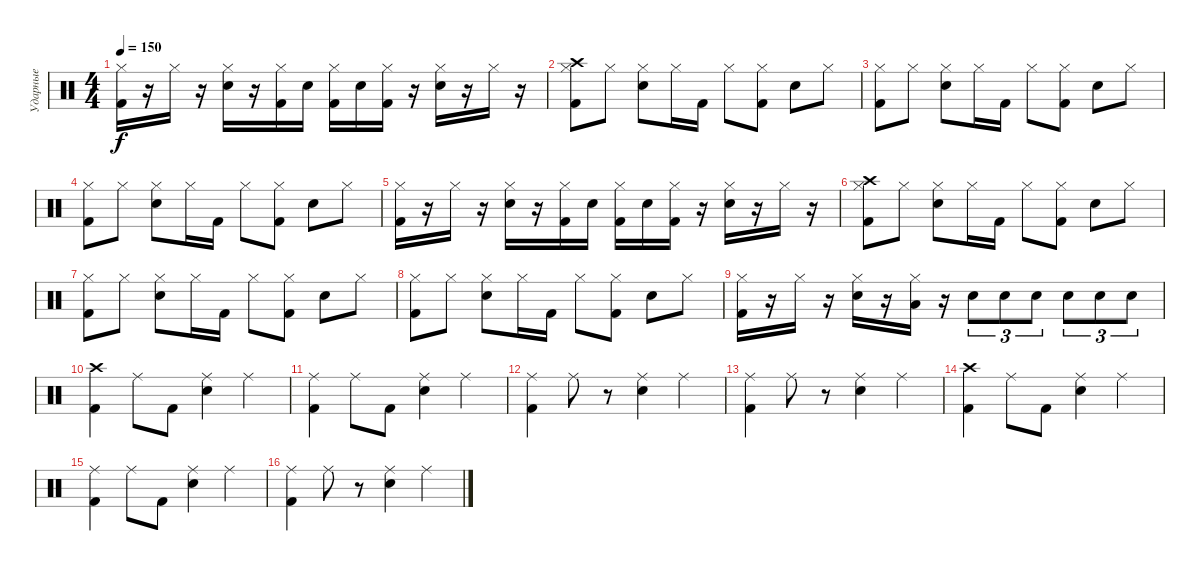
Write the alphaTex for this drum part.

\track ("Ударные" "Ударные") {instrument percussion}
\staff {score}
\articulation defaults
\ts (4 4)
\tempo 150
\clef neutral
\ks c
("Kick (hit) 2" "Hi-Hat (closed)").16{dy f} r.16 "Hi-Hat (closed)".16 r.16 ("Electric Snare (hit)" "Hi-Hat (closed)").16 r.16 ("Kick (hit) 2" "Hi-Hat (closed)").16 "Electric Snare (hit)".16 ("Kick (hit) 2" "Hi-Hat (closed)").16 "Electric Snare (hit)".16 ("Kick (hit) 2" "Hi-Hat (closed)").16 r.16 ("Electric Snare (hit)" "Hi-Hat (closed)").16 r.16 "Hi-Hat (closed)".16 r.16 |
("Kick (hit) 2" "Hi-Hat (closed)" "Crash high (hit)").8 "Hi-Hat (closed)".8 ("Electric Snare (hit)" "Hi-Hat (closed)").8 "Hi-Hat (closed)".16 "Kick (hit) 2".16 "Hi-Hat (closed)".8 ("Kick (hit) 2" "Hi-Hat (closed)").8 "Electric Snare (hit)".8 "Hi-Hat (closed)".8 |
("Kick (hit) 2" "Hi-Hat (closed)").8 "Hi-Hat (closed)".8 ("Electric Snare (hit)" "Hi-Hat (closed)").8 "Hi-Hat (closed)".16 "Kick (hit) 2".16 "Hi-Hat (closed)".8 ("Kick (hit) 2" "Hi-Hat (closed)").8 "Electric Snare (hit)".8 "Hi-Hat (closed)".8 |
("Kick (hit) 2" "Hi-Hat (closed)").8 "Hi-Hat (closed)".8 ("Electric Snare (hit)" "Hi-Hat (closed)").8 "Hi-Hat (closed)".16 "Kick (hit) 2".16 "Hi-Hat (closed)".8 ("Kick (hit) 2" "Hi-Hat (closed)").8 "Electric Snare (hit)".8 "Hi-Hat (closed)".8 |
("Kick (hit) 2" "Hi-Hat (closed)").16 r.16 "Hi-Hat (closed)".16 r.16 ("Electric Snare (hit)" "Hi-Hat (closed)").16 r.16 ("Kick (hit) 2" "Hi-Hat (closed)").16 "Electric Snare (hit)".16 ("Kick (hit) 2" "Hi-Hat (closed)").16 "Electric Snare (hit)".16 ("Kick (hit) 2" "Hi-Hat (closed)").16 r.16 ("Electric Snare (hit)" "Hi-Hat (closed)").16 r.16 "Hi-Hat (closed)".16 r.16 |
("Kick (hit) 2" "Hi-Hat (closed)" "Crash high (hit)").8 "Hi-Hat (closed)".8 ("Electric Snare (hit)" "Hi-Hat (closed)").8 "Hi-Hat (closed)".16 "Kick (hit) 2".16 "Hi-Hat (closed)".8 ("Kick (hit) 2" "Hi-Hat (closed)").8 "Electric Snare (hit)".8 "Hi-Hat (closed)".8 |
("Kick (hit) 2" "Hi-Hat (closed)").8 "Hi-Hat (closed)".8 ("Electric Snare (hit)" "Hi-Hat (closed)").8 "Hi-Hat (closed)".16 "Kick (hit) 2".16 "Hi-Hat (closed)".8 ("Kick (hit) 2" "Hi-Hat (closed)").8 "Electric Snare (hit)".8 "Hi-Hat (closed)".8 |
("Kick (hit) 2" "Hi-Hat (closed)").8 "Hi-Hat (closed)".8 ("Electric Snare (hit)" "Hi-Hat (closed)").8 "Hi-Hat (closed)".16 "Kick (hit) 2".16 "Hi-Hat (closed)".8 ("Kick (hit) 2" "Hi-Hat (closed)").8 "Electric Snare (hit)".8 "Hi-Hat (closed)".8 |
("Kick (hit) 2" "Hi-Hat (closed)").16 r.16 "Hi-Hat (closed)".16 r.16 ("Electric Snare (hit)" "Hi-Hat (closed)").16 r.16 ("Low Floor Tom (hit)" "Hi-Hat (closed)").16 r.16 "Electric Snare (hit)".8{tu (3 2)} "Electric Snare (hit)".8{tu (3 2)} "Electric Snare (hit)".8{tu (3 2)} "Electric Snare (hit)".8{tu (3 2)} "Electric Snare (hit)".8{tu (3 2)} "Electric Snare (hit)".8{tu (3 2)} |
("Kick (hit) 2" "Crash high (hit)").4 "Ride (middle)".8 "Kick (hit) 2".8 ("Ride (middle)" "Electric Snare (hit)").4 "Ride (middle)".4 |
("Kick (hit) 2" "Ride (middle)").4 "Ride (middle)".8 "Kick (hit) 2".8 ("Ride (middle)" "Electric Snare (hit)").4 "Ride (middle)".4 |
("Kick (hit) 2" "Ride (middle)").4 "Ride (middle)".8 r.8 ("Ride (middle)" "Electric Snare (hit)").4 "Ride (middle)".4 |
("Kick (hit) 2" "Ride (middle)").4 "Ride (middle)".8 r.8 ("Ride (middle)" "Electric Snare (hit)").4 "Ride (middle)".4 |
("Kick (hit) 2" "Crash high (hit)").4 "Ride (middle)".8 "Kick (hit) 2".8 ("Ride (middle)" "Electric Snare (hit)").4 "Ride (middle)".4 |
("Kick (hit) 2" "Ride (middle)").4 "Ride (middle)".8 "Kick (hit) 2".8 ("Ride (middle)" "Electric Snare (hit)").4 "Ride (middle)".4 |
("Kick (hit) 2" "Ride (middle)").4 "Ride (middle)".8 r.8 ("Ride (middle)" "Electric Snare (hit)").4 "Ride (middle)".4
